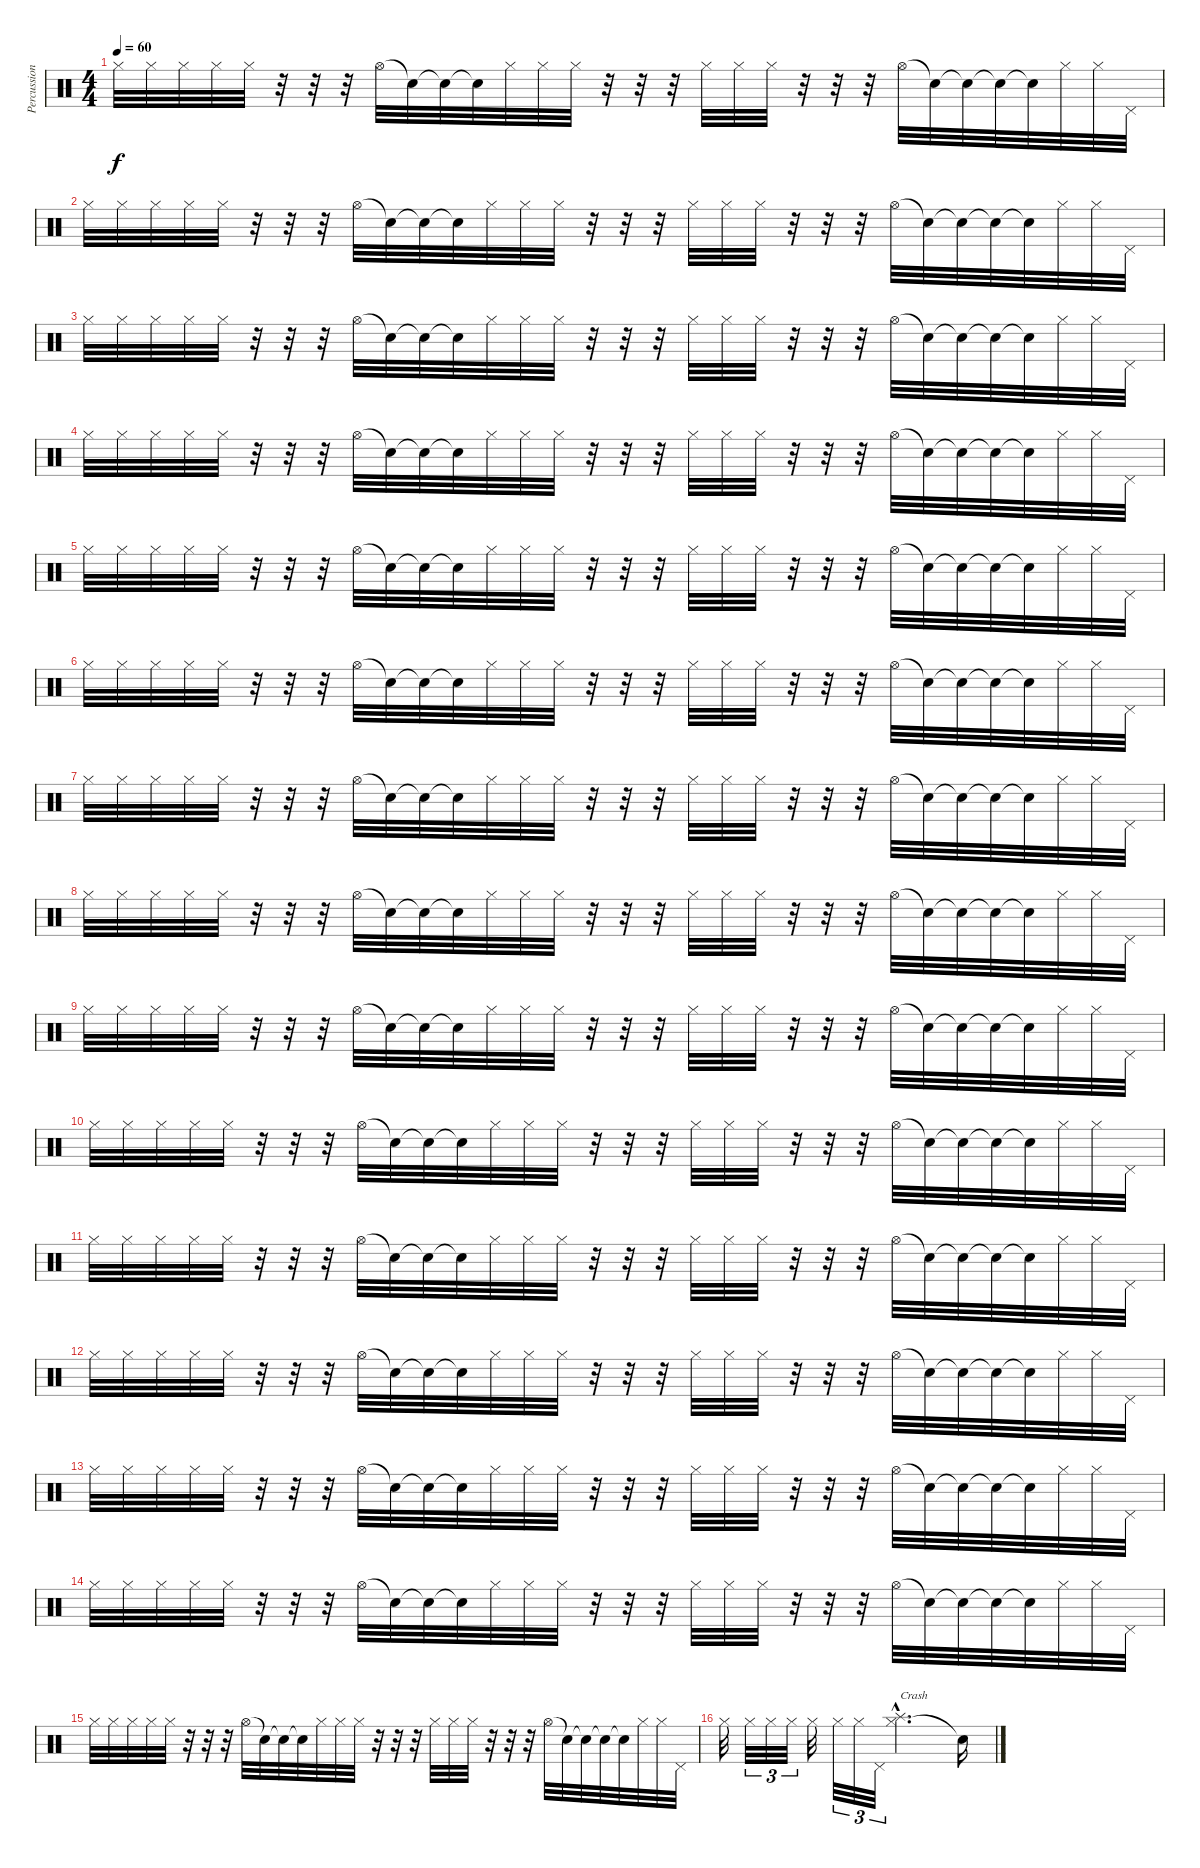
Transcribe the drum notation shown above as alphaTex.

\track ("Percussions (Hit Hat)" "Percussion") {instrument percussion}
\staff {score}
\articulation defaults
\ts (4 4)
\tempo 60
\clef neutral
\ks c "Hi-Hat (closed)".32{dy f} "Hi-Hat (closed)".32 "Hi-Hat (closed)".32 "Hi-Hat (closed)".32 "Hi-Hat (closed)".32
r.32 r.32 r.32 "Hi-Hat (open)".32 "Snare (hit)"{t}.32 "Snare (hit)"{t}.32 "Snare (hit)"{t}.32 "Hi-Hat (closed)".32 "Hi-Hat (closed)".32 "Hi-Hat (closed)".32 r.32 r.32 r.32 "Hi-Hat (closed)".32 "Hi-Hat (closed)".32 "Hi-Hat (closed)".32 r.32 r.32 r.32 "Hi-Hat (open)".32 "Snare (hit)"{t}.32 "Snare (hit)"{t}.32 "Snare (hit)"{t}.32 "Snare (hit)"{t}.32 "Hi-Hat (closed)".32 "Hi-Hat (closed)".32 "Pedal Hi-Hat (hit)".32 |
"Hi-Hat (closed)".32 "Hi-Hat (closed)".32 "Hi-Hat (closed)".32 "Hi-Hat (closed)".32 "Hi-Hat (closed)".32 r.32 r.32 r.32 "Hi-Hat (open)".32 "Snare (hit)"{t}.32 "Snare (hit)"{t}.32 "Snare (hit)"{t}.32 "Hi-Hat (closed)".32 "Hi-Hat (closed)".32 "Hi-Hat (closed)".32 r.32 r.32 r.32 "Hi-Hat (closed)".32 "Hi-Hat (closed)".32 "Hi-Hat (closed)".32 r.32 r.32 r.32 "Hi-Hat (open)".32 "Snare (hit)"{t}.32 "Snare (hit)"{t}.32 "Snare (hit)"{t}.32 "Snare (hit)"{t}.32 "Hi-Hat (closed)".32 "Hi-Hat (closed)".32 "Pedal Hi-Hat (hit)".32 |
"Hi-Hat (closed)".32 "Hi-Hat (closed)".32 "Hi-Hat (closed)".32 "Hi-Hat (closed)".32 "Hi-Hat (closed)".32 r.32 r.32 r.32 "Hi-Hat (open)".32 "Snare (hit)"{t}.32 "Snare (hit)"{t}.32 "Snare (hit)"{t}.32 "Hi-Hat (closed)".32 "Hi-Hat (closed)".32 "Hi-Hat (closed)".32 r.32 r.32 r.32 "Hi-Hat (closed)".32 "Hi-Hat (closed)".32 "Hi-Hat (closed)".32 r.32 r.32 r.32 "Hi-Hat (open)".32 "Snare (hit)"{t}.32 "Snare (hit)"{t}.32 "Snare (hit)"{t}.32 "Snare (hit)"{t}.32 "Hi-Hat (closed)".32 "Hi-Hat (closed)".32 "Pedal Hi-Hat (hit)".32 |
"Hi-Hat (closed)".32 "Hi-Hat (closed)".32 "Hi-Hat (closed)".32 "Hi-Hat (closed)".32 "Hi-Hat (closed)".32 r.32 r.32 r.32 "Hi-Hat (open)".32 "Snare (hit)"{t}.32 "Snare (hit)"{t}.32 "Snare (hit)"{t}.32 "Hi-Hat (closed)".32 "Hi-Hat (closed)".32 "Hi-Hat (closed)".32 r.32 r.32 r.32 "Hi-Hat (closed)".32 "Hi-Hat (closed)".32 "Hi-Hat (closed)".32 r.32 r.32 r.32 "Hi-Hat (open)".32 "Snare (hit)"{t}.32 "Snare (hit)"{t}.32 "Snare (hit)"{t}.32 "Snare (hit)"{t}.32 "Hi-Hat (closed)".32 "Hi-Hat (closed)".32 "Pedal Hi-Hat (hit)".32 |
"Hi-Hat (closed)".32 "Hi-Hat (closed)".32 "Hi-Hat (closed)".32 "Hi-Hat (closed)".32 "Hi-Hat (closed)".32 r.32 r.32 r.32 "Hi-Hat (open)".32 "Snare (hit)"{t}.32 "Snare (hit)"{t}.32 "Snare (hit)"{t}.32 "Hi-Hat (closed)".32 "Hi-Hat (closed)".32 "Hi-Hat (closed)".32 r.32 r.32 r.32 "Hi-Hat (closed)".32 "Hi-Hat (closed)".32 "Hi-Hat (closed)".32 r.32 r.32 r.32 "Hi-Hat (open)".32 "Snare (hit)"{t}.32 "Snare (hit)"{t}.32 "Snare (hit)"{t}.32 "Snare (hit)"{t}.32 "Hi-Hat (closed)".32 "Hi-Hat (closed)".32 "Pedal Hi-Hat (hit)".32 |
"Hi-Hat (closed)".32 "Hi-Hat (closed)".32 "Hi-Hat (closed)".32 "Hi-Hat (closed)".32 "Hi-Hat (closed)".32 r.32 r.32 r.32 "Hi-Hat (open)".32 "Snare (hit)"{t}.32 "Snare (hit)"{t}.32 "Snare (hit)"{t}.32 "Hi-Hat (closed)".32 "Hi-Hat (closed)".32 "Hi-Hat (closed)".32 r.32 r.32 r.32 "Hi-Hat (closed)".32 "Hi-Hat (closed)".32 "Hi-Hat (closed)".32 r.32 r.32 r.32 "Hi-Hat (open)".32 "Snare (hit)"{t}.32 "Snare (hit)"{t}.32 "Snare (hit)"{t}.32 "Snare (hit)"{t}.32 "Hi-Hat (closed)".32 "Hi-Hat (closed)".32 "Pedal Hi-Hat (hit)".32 |
"Hi-Hat (closed)".32 "Hi-Hat (closed)".32 "Hi-Hat (closed)".32 "Hi-Hat (closed)".32 "Hi-Hat (closed)".32 r.32 r.32 r.32 "Hi-Hat (open)".32 "Snare (hit)"{t}.32 "Snare (hit)"{t}.32 "Snare (hit)"{t}.32 "Hi-Hat (closed)".32 "Hi-Hat (closed)".32 "Hi-Hat (closed)".32 r.32 r.32 r.32 "Hi-Hat (closed)".32 "Hi-Hat (closed)".32 "Hi-Hat (closed)".32 r.32 r.32 r.32 "Hi-Hat (open)".32 "Snare (hit)"{t}.32 "Snare (hit)"{t}.32 "Snare (hit)"{t}.32 "Snare (hit)"{t}.32 "Hi-Hat (closed)".32 "Hi-Hat (closed)".32 "Pedal Hi-Hat (hit)".32 |
"Hi-Hat (closed)".32 "Hi-Hat (closed)".32 "Hi-Hat (closed)".32 "Hi-Hat (closed)".32 "Hi-Hat (closed)".32 r.32 r.32 r.32 "Hi-Hat (open)".32 "Snare (hit)"{t}.32 "Snare (hit)"{t}.32 "Snare (hit)"{t}.32 "Hi-Hat (closed)".32 "Hi-Hat (closed)".32 "Hi-Hat (closed)".32 r.32 r.32 r.32 "Hi-Hat (closed)".32 "Hi-Hat (closed)".32 "Hi-Hat (closed)".32 r.32 r.32 r.32 "Hi-Hat (open)".32 "Snare (hit)"{t}.32 "Snare (hit)"{t}.32 "Snare (hit)"{t}.32 "Snare (hit)"{t}.32 "Hi-Hat (closed)".32 "Hi-Hat (closed)".32 "Pedal Hi-Hat (hit)".32 |
"Hi-Hat (closed)".32 "Hi-Hat (closed)".32 "Hi-Hat (closed)".32 "Hi-Hat (closed)".32 "Hi-Hat (closed)".32 r.32 r.32 r.32 "Hi-Hat (open)".32 "Snare (hit)"{t}.32 "Snare (hit)"{t}.32 "Snare (hit)"{t}.32 "Hi-Hat (closed)".32 "Hi-Hat (closed)".32 "Hi-Hat (closed)".32 r.32 r.32 r.32 "Hi-Hat (closed)".32 "Hi-Hat (closed)".32 "Hi-Hat (closed)".32 r.32 r.32 r.32 "Hi-Hat (open)".32 "Snare (hit)"{t}.32 "Snare (hit)"{t}.32 "Snare (hit)"{t}.32 "Snare (hit)"{t}.32 "Hi-Hat (closed)".32 "Hi-Hat (closed)".32 "Pedal Hi-Hat (hit)".32 |
"Hi-Hat (closed)".32 "Hi-Hat (closed)".32 "Hi-Hat (closed)".32 "Hi-Hat (closed)".32 "Hi-Hat (closed)".32 r.32 r.32 r.32 "Hi-Hat (open)".32 "Snare (hit)"{t}.32 "Snare (hit)"{t}.32 "Snare (hit)"{t}.32 "Hi-Hat (closed)".32 "Hi-Hat (closed)".32 "Hi-Hat (closed)".32 r.32 r.32 r.32 "Hi-Hat (closed)".32 "Hi-Hat (closed)".32 "Hi-Hat (closed)".32 r.32 r.32 r.32 "Hi-Hat (open)".32 "Snare (hit)"{t}.32 "Snare (hit)"{t}.32 "Snare (hit)"{t}.32 "Snare (hit)"{t}.32 "Hi-Hat (closed)".32 "Hi-Hat (closed)".32 "Pedal Hi-Hat (hit)".32 |
"Hi-Hat (closed)".32 "Hi-Hat (closed)".32 "Hi-Hat (closed)".32 "Hi-Hat (closed)".32 "Hi-Hat (closed)".32 r.32 r.32 r.32 "Hi-Hat (open)".32 "Snare (hit)"{t}.32 "Snare (hit)"{t}.32 "Snare (hit)"{t}.32 "Hi-Hat (closed)".32 "Hi-Hat (closed)".32 "Hi-Hat (closed)".32 r.32 r.32 r.32 "Hi-Hat (closed)".32 "Hi-Hat (closed)".32 "Hi-Hat (closed)".32 r.32 r.32 r.32 "Hi-Hat (open)".32 "Snare (hit)"{t}.32 "Snare (hit)"{t}.32 "Snare (hit)"{t}.32 "Snare (hit)"{t}.32 "Hi-Hat (closed)".32 "Hi-Hat (closed)".32 "Pedal Hi-Hat (hit)".32 |
"Hi-Hat (closed)".32 "Hi-Hat (closed)".32 "Hi-Hat (closed)".32 "Hi-Hat (closed)".32 "Hi-Hat (closed)".32 r.32 r.32 r.32 "Hi-Hat (open)".32 "Snare (hit)"{t}.32 "Snare (hit)"{t}.32 "Snare (hit)"{t}.32 "Hi-Hat (closed)".32 "Hi-Hat (closed)".32 "Hi-Hat (closed)".32 r.32 r.32 r.32 "Hi-Hat (closed)".32 "Hi-Hat (closed)".32 "Hi-Hat (closed)".32 r.32 r.32 r.32 "Hi-Hat (open)".32 "Snare (hit)"{t}.32 "Snare (hit)"{t}.32 "Snare (hit)"{t}.32 "Snare (hit)"{t}.32 "Hi-Hat (closed)".32 "Hi-Hat (closed)".32 "Pedal Hi-Hat (hit)".32 |
"Hi-Hat (closed)".32 "Hi-Hat (closed)".32 "Hi-Hat (closed)".32 "Hi-Hat (closed)".32 "Hi-Hat (closed)".32 r.32 r.32 r.32 "Hi-Hat (open)".32 "Snare (hit)"{t}.32 "Snare (hit)"{t}.32 "Snare (hit)"{t}.32 "Hi-Hat (closed)".32 "Hi-Hat (closed)".32 "Hi-Hat (closed)".32 r.32 r.32 r.32 "Hi-Hat (closed)".32 "Hi-Hat (closed)".32 "Hi-Hat (closed)".32 r.32 r.32 r.32 "Hi-Hat (open)".32 "Snare (hit)"{t}.32 "Snare (hit)"{t}.32 "Snare (hit)"{t}.32 "Snare (hit)"{t}.32 "Hi-Hat (closed)".32 "Hi-Hat (closed)".32 "Pedal Hi-Hat (hit)".32 |
"Hi-Hat (closed)".32 "Hi-Hat (closed)".32 "Hi-Hat (closed)".32 "Hi-Hat (closed)".32 "Hi-Hat (closed)".32 r.32 r.32 r.32 "Hi-Hat (open)".32 "Snare (hit)"{t}.32 "Snare (hit)"{t}.32 "Snare (hit)"{t}.32 "Hi-Hat (closed)".32 "Hi-Hat (closed)".32 "Hi-Hat (closed)".32 r.32 r.32 r.32 "Hi-Hat (closed)".32 "Hi-Hat (closed)".32 "Hi-Hat (closed)".32 r.32 r.32 r.32 "Hi-Hat (open)".32 "Snare (hit)"{t}.32 "Snare (hit)"{t}.32 "Snare (hit)"{t}.32 "Snare (hit)"{t}.32 "Hi-Hat (closed)".32 "Hi-Hat (closed)".32 "Pedal Hi-Hat (hit)".32 |
"Hi-Hat (closed)".32 "Hi-Hat (closed)".32 "Hi-Hat (closed)".32 "Hi-Hat (closed)".32 "Hi-Hat (closed)".32 r.32 r.32 r.32 "Hi-Hat (open)".32 "Snare (hit)"{t}.32 "Snare (hit)"{t}.32 "Snare (hit)"{t}.32 "Hi-Hat (closed)".32 "Hi-Hat (closed)".32 "Hi-Hat (closed)".32 r.32 r.32 r.32 "Hi-Hat (closed)".32 "Hi-Hat (closed)".32 "Hi-Hat (closed)".32 r.32 r.32 r.32 "Hi-Hat (open)".32 "Snare (hit)"{t}.32 "Snare (hit)"{t}.32 "Snare (hit)"{t}.32 "Snare (hit)"{t}.32 "Hi-Hat (closed)".32 "Hi-Hat (closed)".32 "Pedal Hi-Hat (hit)".32 |
"Hi-Hat (closed)".32 "Hi-Hat (closed)".32{tu (3 2)} "Hi-Hat (closed)".32{tu (3 2)} "Hi-Hat (closed)".32{tu (3 2)} "Hi-Hat (closed)".32 "Hi-Hat (closed)".32{tu (3 2)} "Hi-Hat (closed)".32{tu (3 2)} "Pedal Hi-Hat (hit)".32{tu (3 2)} ("Hi-Hat (closed)"{hac} "Splash (hit)"{hac}).2{d txt "Crash"} "Snare (hit)"{t}.16
